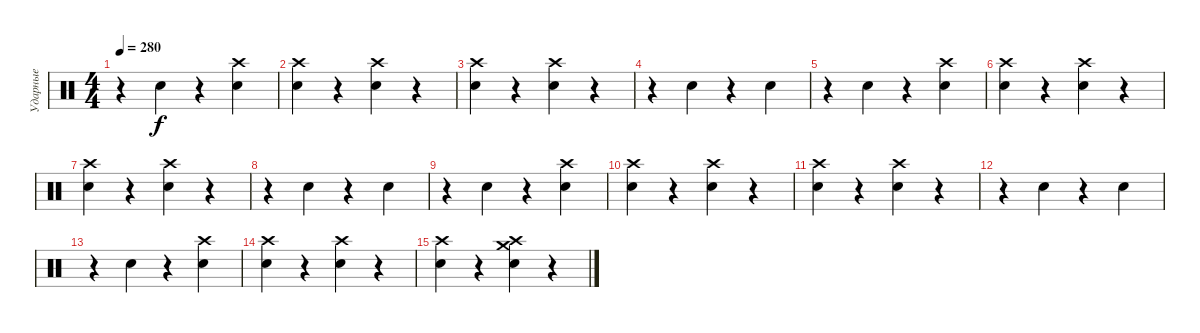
\track ("Ударные" "Ударные") {instrument percussion}
\staff {score}
\articulation defaults
\ts (4 4)
\tempo 280
\clef neutral
\ks c
r.4{dy f} "Snare (hit) 2".4 r.4 ("Snare (hit) 2" "Crash high (hit)").4 |
("Snare (hit) 2" "Crash high (hit)").4 r.4 ("Snare (hit) 2" "Crash high (hit)").4 r.4 |
("Snare (hit) 2" "Crash high (hit)").4 r.4 ("Snare (hit) 2" "Crash high (hit)").4 r.4 |
r.4 "Snare (hit) 2".4 r.4 "Snare (hit) 2".4 |
r.4 "Snare (hit) 2".4 r.4 ("Snare (hit) 2" "Crash high (hit)").4 |
("Snare (hit) 2" "Crash high (hit)").4 r.4 ("Snare (hit) 2" "Crash high (hit)").4 r.4 |
("Snare (hit) 2" "Crash high (hit)").4 r.4 ("Snare (hit) 2" "Crash high (hit)").4 r.4 |
r.4 "Snare (hit) 2".4 r.4 "Snare (hit) 2".4 |
r.4 "Snare (hit) 2".4 r.4 ("Snare (hit) 2" "Crash high (hit)").4 |
("Snare (hit) 2" "Crash high (hit)").4 r.4 ("Snare (hit) 2" "Crash high (hit)").4 r.4 |
("Snare (hit) 2" "Crash high (hit)").4 r.4 ("Snare (hit) 2" "Crash high (hit)").4 r.4 |
r.4 "Snare (hit) 2".4 r.4 "Snare (hit) 2".4 |
r.4 "Snare (hit) 2".4 r.4 ("Snare (hit) 2" "Crash high (hit)").4 |
("Snare (hit) 2" "Crash high (hit)").4 r.4 ("Snare (hit) 2" "Crash high (hit)").4 r.4 |
("Snare (hit) 2" "Crash high (hit)").4 r.4 ("Snare (hit) 2" "Crash high (hit)" "Crash medium (hit)").4 r.4
